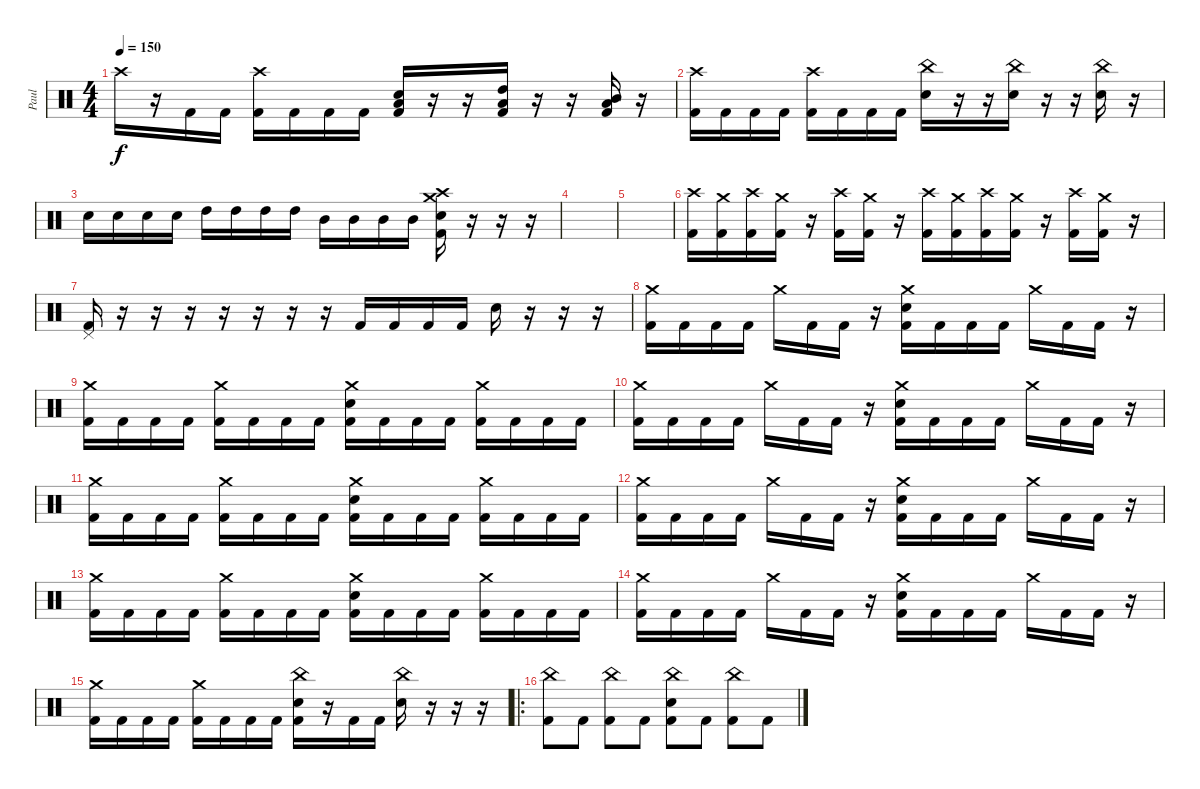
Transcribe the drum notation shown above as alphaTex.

\track ("Paul" "Paul") {instrument percussion}
\staff {score}
\articulation defaults
\ts (4 4)
\tempo 150
\clef neutral
\ks c "Crash high (hit)".16{dy f}
r.16 "Kick (hit) 2".16 "Kick (hit) 2".16 ("Crash high (hit)" "Kick (hit) 2").16 "Kick (hit) 2".16 "Kick (hit) 2".16 "Kick (hit) 2".16 ("Electric Snare (hit)" "Low Tom (hit)" "Kick (hit) 2").16 r.16 r.16 ("High Tom (hit)" "Low Tom (hit)" "Kick (hit) 2").16 r.16 r.16 ("Mid Tom (hit)" "Low Tom (hit)" "Kick (hit) 2").16 r.16 |
("Crash high (hit)" "Kick (hit) 2").16 "Kick (hit) 2".16 "Kick (hit) 2".16 "Kick (hit) 2".16 ("Crash high (hit)" "Kick (hit) 2").16 "Kick (hit) 2".16 "Kick (hit) 2".16 "Kick (hit) 2".16 ("China (hit)" "Electric Snare (hit)").16 r.16 r.16 ("China (hit)" "Electric Snare (hit)").16 r.16 r.16 ("China (hit)" "Electric Snare (hit)").16 r.16 |
"Electric Snare (hit)".16 "Electric Snare (hit)".16 "Electric Snare (hit)".16 "Electric Snare (hit)".16 "High Tom (hit)".16 "High Tom (hit)".16 "High Tom (hit)".16 "High Tom (hit)".16 "Mid Tom (hit)".16 "Mid Tom (hit)".16 "Mid Tom (hit)".16 "Mid Tom (hit)".16 ("Crash high (hit)" "Crash medium (hit)" "Electric Snare (hit)" "Kick (hit) 2").16 r.16 r.16 r.16 |
|
|
("Crash high (hit)" "Kick (hit) 2").16 ("Crash medium (hit)" "Kick (hit) 2").16 ("Crash high (hit)" "Kick (hit) 2").16 ("Crash medium (hit)" "Kick (hit) 2").16 r.16 ("Crash high (hit)" "Kick (hit) 2").16 ("Crash medium (hit)" "Kick (hit) 2").16 r.16 ("Crash high (hit)" "Kick (hit) 2").16 ("Crash medium (hit)" "Kick (hit) 2").16 ("Crash high (hit)" "Kick (hit) 2").16 ("Crash medium (hit)" "Kick (hit) 2").16 r.16 ("Crash high (hit)" "Kick (hit) 2").16 ("Crash medium (hit)" "Kick (hit) 2").16 r.16 |
("Pedal Hi-Hat (hit)" "Kick (hit) 2").16 r.16 r.16 r.16 r.16 r.16 r.16 r.16 "Kick (hit) 2".16 "Kick (hit) 2".16 "Kick (hit) 2".16 "Kick (hit) 2".16 "Snare (hit) 2".16 r.16 r.16 r.16 |
("Crash medium (hit)" "Kick (hit) 2").16 "Kick (hit) 2".16 "Kick (hit) 2".16 "Kick (hit) 2".16 "Crash medium (hit)".16 "Kick (hit) 2".16 "Kick (hit) 2".16 r.16 ("Crash medium (hit)" "Electric Snare (hit)" "Kick (hit) 2").16 "Kick (hit) 2".16 "Kick (hit) 2".16 "Kick (hit) 2".16 "Crash medium (hit)".16 "Kick (hit) 2".16 "Kick (hit) 2".16 r.16 |
("Crash medium (hit)" "Kick (hit) 2").16 "Kick (hit) 2".16 "Kick (hit) 2".16 "Kick (hit) 2".16 ("Crash medium (hit)" "Kick (hit) 2").16 "Kick (hit) 2".16 "Kick (hit) 2".16 "Kick (hit) 2".16 ("Crash medium (hit)" "Electric Snare (hit)" "Kick (hit) 2").16 "Kick (hit) 2".16 "Kick (hit) 2".16 "Kick (hit) 2".16 ("Crash medium (hit)" "Kick (hit) 2").16 "Kick (hit) 2".16 "Kick (hit) 2".16 "Kick (hit) 2".16 |
("Crash medium (hit)" "Kick (hit) 2").16 "Kick (hit) 2".16 "Kick (hit) 2".16 "Kick (hit) 2".16 "Crash medium (hit)".16 "Kick (hit) 2".16 "Kick (hit) 2".16 r.16 ("Crash medium (hit)" "Electric Snare (hit)" "Kick (hit) 2").16 "Kick (hit) 2".16 "Kick (hit) 2".16 "Kick (hit) 2".16 "Crash medium (hit)".16 "Kick (hit) 2".16 "Kick (hit) 2".16 r.16 |
("Crash medium (hit)" "Kick (hit) 2").16 "Kick (hit) 2".16 "Kick (hit) 2".16 "Kick (hit) 2".16 ("Crash medium (hit)" "Kick (hit) 2").16 "Kick (hit) 2".16 "Kick (hit) 2".16 "Kick (hit) 2".16 ("Crash medium (hit)" "Electric Snare (hit)" "Kick (hit) 2").16 "Kick (hit) 2".16 "Kick (hit) 2".16 "Kick (hit) 2".16 ("Crash medium (hit)" "Kick (hit) 2").16 "Kick (hit) 2".16 "Kick (hit) 2".16 "Kick (hit) 2".16 |
("Crash medium (hit)" "Kick (hit) 2").16 "Kick (hit) 2".16 "Kick (hit) 2".16 "Kick (hit) 2".16 "Crash medium (hit)".16 "Kick (hit) 2".16 "Kick (hit) 2".16 r.16 ("Crash medium (hit)" "Electric Snare (hit)" "Kick (hit) 2").16 "Kick (hit) 2".16 "Kick (hit) 2".16 "Kick (hit) 2".16 "Crash medium (hit)".16 "Kick (hit) 2".16 "Kick (hit) 2".16 r.16 |
("Crash medium (hit)" "Kick (hit) 2").16 "Kick (hit) 2".16 "Kick (hit) 2".16 "Kick (hit) 2".16 ("Crash medium (hit)" "Kick (hit) 2").16 "Kick (hit) 2".16 "Kick (hit) 2".16 "Kick (hit) 2".16 ("Crash medium (hit)" "Electric Snare (hit)" "Kick (hit) 2").16 "Kick (hit) 2".16 "Kick (hit) 2".16 "Kick (hit) 2".16 ("Crash medium (hit)" "Kick (hit) 2").16 "Kick (hit) 2".16 "Kick (hit) 2".16 "Kick (hit) 2".16 |
("Crash medium (hit)" "Kick (hit) 2").16 "Kick (hit) 2".16 "Kick (hit) 2".16 "Kick (hit) 2".16 "Crash medium (hit)".16 "Kick (hit) 2".16 "Kick (hit) 2".16 r.16 ("Crash medium (hit)" "Electric Snare (hit)" "Kick (hit) 2").16 "Kick (hit) 2".16 "Kick (hit) 2".16 "Kick (hit) 2".16 "Crash medium (hit)".16 "Kick (hit) 2".16 "Kick (hit) 2".16 r.16 |
("Crash medium (hit)" "Kick (hit) 2").16 "Kick (hit) 2".16 "Kick (hit) 2".16 "Kick (hit) 2".16 ("Crash medium (hit)" "Kick (hit) 2").16 "Kick (hit) 2".16 "Kick (hit) 2".16 "Kick (hit) 2".16 ("China (hit)" "Electric Snare (hit)" "Kick (hit) 2").16 r.16 "Kick (hit) 2".16 "Kick (hit) 2".16 ("China (hit)" "Electric Snare (hit)").16 r.16 r.16 r.16 |
\ro
("China (hit)" "Kick (hit) 2").8 "Kick (hit) 2".8 ("China (hit)" "Kick (hit) 2").8 "Kick (hit) 2".8 ("China (hit)" "Electric Snare (hit)" "Kick (hit) 2").8 "Kick (hit) 2".8 ("China (hit)" "Kick (hit) 2").8 "Kick (hit) 2".8
